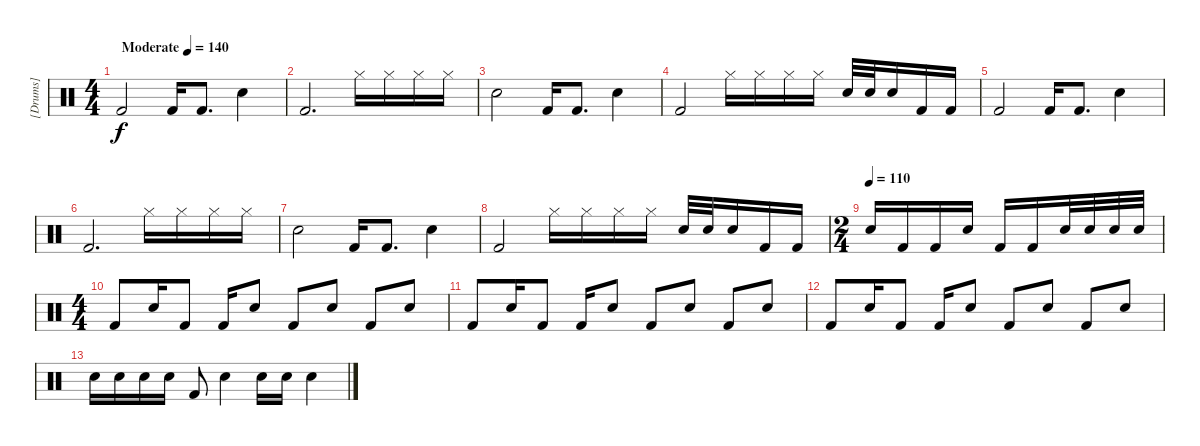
\track ("[Drums]" "[Drums]") {instrument percussion}
\staff {score}
\articulation defaults
\ts (4 4)
\tempo (140 "Moderate")
\clef neutral
\ks c "Kick (hit) 2".2{dy f} "Kick (hit) 2".16 "Kick (hit) 2".8{d} "Electric Snare (hit)".4
|
"Kick (hit) 2".2{d} "Hi-Hat (closed)".16 "Hi-Hat (closed)".16 "Hi-Hat (closed)".16 "Hi-Hat (closed)".16 |
"Electric Snare (hit)".2 "Kick (hit) 2".16 "Kick (hit) 2".8{d} "Electric Snare (hit)".4 |
"Kick (hit) 2".2 "Hi-Hat (closed)".16 "Hi-Hat (closed)".16 "Hi-Hat (closed)".16 "Hi-Hat (closed)".16 "Electric Snare (hit)".32 "Electric Snare (hit)".32 "Electric Snare (hit)".16 "Kick (hit) 2".16 "Kick (hit) 2".16 |
"Kick (hit) 2".2 "Kick (hit) 2".16 "Kick (hit) 2".8{d} "Electric Snare (hit)".4 |
"Kick (hit) 2".2{d} "Hi-Hat (closed)".16 "Hi-Hat (closed)".16 "Hi-Hat (closed)".16 "Hi-Hat (closed)".16 |
"Electric Snare (hit)".2 "Kick (hit) 2".16 "Kick (hit) 2".8{d} "Electric Snare (hit)".4 |
"Kick (hit) 2".2 "Hi-Hat (closed)".16 "Hi-Hat (closed)".16 "Hi-Hat (closed)".16 "Hi-Hat (closed)".16 "Electric Snare (hit)".32 "Electric Snare (hit)".32 "Electric Snare (hit)".16 "Kick (hit) 2".16 "Kick (hit) 2".16 |
\ts (2 4)
\tempo (110)
"Electric Snare (hit)".16 "Kick (hit) 2".16 "Kick (hit) 2".16 "Electric Snare (hit)".16 "Kick (hit) 2".16 "Kick (hit) 2".16 "Electric Snare (hit)".32 "Electric Snare (hit)".32 "Electric Snare (hit)".32 "Electric Snare (hit)".32 |
\ts (4 4)
"Kick (hit) 2".8 "Electric Snare (hit)".16 "Kick (hit) 2".8 "Kick (hit) 2".16 "Electric Snare (hit)".8 "Kick (hit) 2".8 "Electric Snare (hit)".8 "Kick (hit) 2".8 "Electric Snare (hit)".8 |
"Kick (hit) 2".8 "Electric Snare (hit)".16 "Kick (hit) 2".8 "Kick (hit) 2".16 "Electric Snare (hit)".8 "Kick (hit) 2".8 "Electric Snare (hit)".8 "Kick (hit) 2".8 "Electric Snare (hit)".8 |
"Kick (hit) 2".8 "Electric Snare (hit)".16 "Kick (hit) 2".8 "Kick (hit) 2".16 "Electric Snare (hit)".8 "Kick (hit) 2".8 "Electric Snare (hit)".8 "Kick (hit) 2".8 "Electric Snare (hit)".8 |
"Electric Snare (hit)".16 "Electric Snare (hit)".16 "Electric Snare (hit)".16 "Electric Snare (hit)".16 "Kick (hit) 2".8 "Electric Snare (hit)".4 "Electric Snare (hit)".16 "Electric Snare (hit)".16 "Electric Snare (hit)".4
